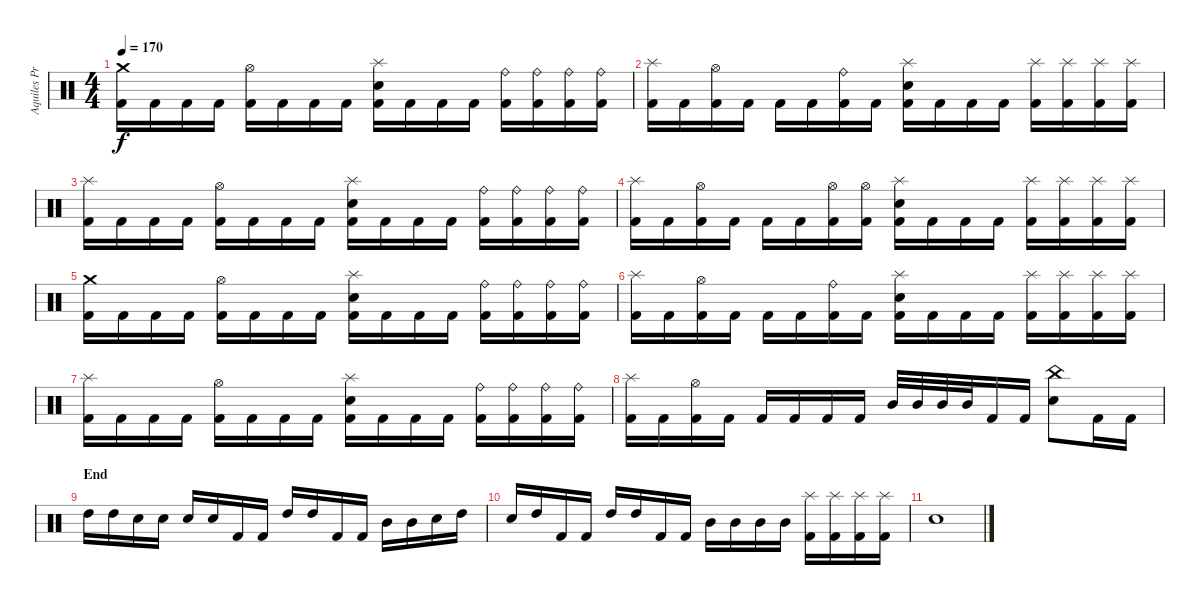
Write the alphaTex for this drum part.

\track ("Aquiles Priester" "Aquiles Pr") {instrument percussion}
\staff {score}
\articulation defaults
\ts (4 4)
\tempo 170
\clef neutral
\ks c
("Crash medium (hit)" "Kick (hit) 2").16{dy f} "Kick (hit) 2".16 "Kick (hit) 2".16 "Kick (hit) 2".16 ("Hi-Hat (open)" "Kick (hit) 2").16 "Kick (hit) 2".16 "Kick (hit) 2".16 "Kick (hit) 2".16 ("Electric Snare (hit)" "Splash (hit)" "Kick (hit) 2").16 "Kick (hit) 2".16 "Kick (hit) 2".16 "Kick (hit) 2".16 ("Ride (bell)" "Kick (hit) 2").16 ("Ride (bell)" "Kick (hit) 2").16 ("Ride (bell)" "Kick (hit) 2").16 ("Ride (bell)" "Kick (hit) 2").16 |
("Splash (hit)" "Kick (hit) 2").16 "Kick (hit) 2".16 ("Hi-Hat (open)" "Kick (hit) 2").16 "Kick (hit) 2".16 "Kick (hit) 2".16 "Kick (hit) 2".16 ("Ride (bell)" "Kick (hit) 2").16 "Kick (hit) 2".16 ("Electric Snare (hit)" "Splash (hit)" "Kick (hit) 2").16 "Kick (hit) 2".16 "Kick (hit) 2".16 "Kick (hit) 2".16 ("Splash (hit)" "Kick (hit) 2").16 ("Splash (hit)" "Kick (hit) 2").16 ("Splash (hit)" "Kick (hit) 2").16 ("Splash (hit)" "Kick (hit) 2").16 |
("Splash (hit)" "Kick (hit) 2").16 "Kick (hit) 2".16 "Kick (hit) 2".16 "Kick (hit) 2".16 ("Hi-Hat (open)" "Kick (hit) 2").16 "Kick (hit) 2".16 "Kick (hit) 2".16 "Kick (hit) 2".16 ("Electric Snare (hit)" "Splash (hit)" "Kick (hit) 2").16 "Kick (hit) 2".16 "Kick (hit) 2".16 "Kick (hit) 2".16 ("Ride (bell)" "Kick (hit) 2").16 ("Ride (bell)" "Kick (hit) 2").16 ("Ride (bell)" "Kick (hit) 2").16 ("Ride (bell)" "Kick (hit) 2").16 |
("Splash (hit)" "Kick (hit) 2").16 "Kick (hit) 2".16 ("Hi-Hat (open)" "Kick (hit) 2").16 "Kick (hit) 2".16 "Kick (hit) 2".16 "Kick (hit) 2".16 ("Hi-Hat (open)" "Kick (hit) 2").16 ("Hi-Hat (open)" "Kick (hit) 2").16 ("Electric Snare (hit)" "Splash (hit)" "Kick (hit) 2").16 "Kick (hit) 2".16 "Kick (hit) 2".16 "Kick (hit) 2".16 ("Splash (hit)" "Kick (hit) 2").16 ("Splash (hit)" "Kick (hit) 2").16 ("Splash (hit)" "Kick (hit) 2").16 ("Splash (hit)" "Kick (hit) 2").16 |
("Crash medium (hit)" "Kick (hit) 2").16 "Kick (hit) 2".16 "Kick (hit) 2".16 "Kick (hit) 2".16 ("Hi-Hat (open)" "Kick (hit) 2").16 "Kick (hit) 2".16 "Kick (hit) 2".16 "Kick (hit) 2".16 ("Electric Snare (hit)" "Splash (hit)" "Kick (hit) 2").16 "Kick (hit) 2".16 "Kick (hit) 2".16 "Kick (hit) 2".16 ("Ride (bell)" "Kick (hit) 2").16 ("Ride (bell)" "Kick (hit) 2").16 ("Ride (bell)" "Kick (hit) 2").16 ("Ride (bell)" "Kick (hit) 2").16 |
("Splash (hit)" "Kick (hit) 2").16 "Kick (hit) 2".16 ("Hi-Hat (open)" "Kick (hit) 2").16 "Kick (hit) 2".16 "Kick (hit) 2".16 "Kick (hit) 2".16 ("Ride (bell)" "Kick (hit) 2").16 "Kick (hit) 2".16 ("Electric Snare (hit)" "Splash (hit)" "Kick (hit) 2").16 "Kick (hit) 2".16 "Kick (hit) 2".16 "Kick (hit) 2".16 ("Splash (hit)" "Kick (hit) 2").16 ("Splash (hit)" "Kick (hit) 2").16 ("Splash (hit)" "Kick (hit) 2").16 ("Splash (hit)" "Kick (hit) 2").16 |
("Splash (hit)" "Kick (hit) 2").16 "Kick (hit) 2".16 "Kick (hit) 2".16 "Kick (hit) 2".16 ("Hi-Hat (open)" "Kick (hit) 2").16 "Kick (hit) 2".16 "Kick (hit) 2".16 "Kick (hit) 2".16 ("Splash (hit)" "Electric Snare (hit)" "Kick (hit) 2").16 "Kick (hit) 2".16 "Kick (hit) 2".16 "Kick (hit) 2".16 ("Ride (bell)" "Kick (hit) 2").16 ("Ride (bell)" "Kick (hit) 2").16 ("Ride (bell)" "Kick (hit) 2").16 ("Ride (bell)" "Kick (hit) 2").16 |
("Splash (hit)" "Kick (hit) 2").16 "Kick (hit) 2".16 ("Hi-Hat (open)" "Kick (hit) 2").16 "Kick (hit) 2".16 "Kick (hit) 2".16 "Kick (hit) 2".16 "Kick (hit) 2".16 "Kick (hit) 2".16 "Mid Tom (hit)".32 "Mid Tom (hit)".32 "Mid Tom (hit)".32 "Mid Tom (hit)".32 "Kick (hit) 2".16 "Kick (hit) 2".16 ("China (hit)" "Electric Snare (hit)").8 "Kick (hit) 2".16 "Kick (hit) 2".16 |
\section ("" "End")
"High Tom (hit)".16 "High Tom (hit)".16 "Electric Snare (hit)".16 "Electric Snare (hit)".16 "Electric Snare (hit)".16 "Electric Snare (hit)".16 "Kick (hit) 2".16 "Kick (hit) 2".16 "High Tom (hit)".16 "High Tom (hit)".16 "Kick (hit) 2".16 "Kick (hit) 2".16 "Mid Tom (hit)".16 "Mid Tom (hit)".16 "Electric Snare (hit)".16 "High Tom (hit)".16 |
"Electric Snare (hit)".16 "High Tom (hit)".16 "Kick (hit) 2".16 "Kick (hit) 2".16 "High Tom (hit)".16 "High Tom (hit)".16 "Kick (hit) 2".16 "Kick (hit) 2".16 "Mid Tom (hit)".16 "Mid Tom (hit)".16 "Mid Tom (hit)".16 "Mid Tom (hit)".16 ("Splash (hit)" "Kick (hit) 2").16 ("Splash (hit)" "Kick (hit) 2").16 ("Splash (hit)" "Kick (hit) 2").16 ("Splash (hit)" "Kick (hit) 2").16 |
"Electric Snare (hit)".1
